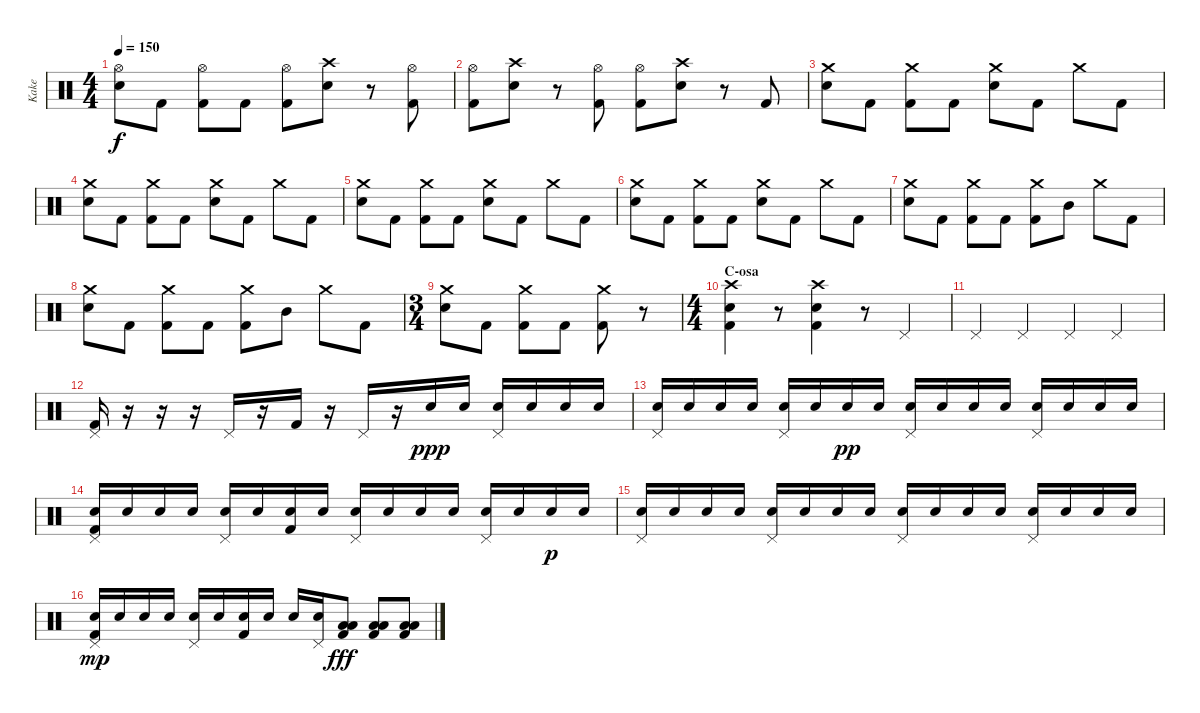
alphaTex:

\track ("Kake" "Kake") {instrument percussion}
\staff {score}
\articulation defaults
\ts (4 4)
\tempo 150
\clef neutral
\ks c
("Hi-Hat (open)" "Electric Snare (hit)").8{dy f} "Kick (hit) 2".8 ("Hi-Hat (open)" "Kick (hit) 2").8 "Kick (hit) 2".8 ("Hi-Hat (open)" "Kick (hit) 2").8 ("Crash high (hit)" "Electric Snare (hit)").8 r.8 ("Hi-Hat (open)" "Kick (hit) 2").8 |
("Hi-Hat (open)" "Kick (hit) 2").8 ("Crash high (hit)" "Electric Snare (hit)").8 r.8 ("Hi-Hat (open)" "Kick (hit) 2").8 ("Hi-Hat (open)" "Kick (hit) 2").8 ("Crash high (hit)" "Electric Snare (hit)").8 r.8 "Kick (hit) 2".8 |
("Crash medium (hit)" "Electric Snare (hit)").8 "Kick (hit) 2".8 ("Crash medium (hit)" "Kick (hit) 2").8 "Kick (hit) 2".8 ("Crash medium (hit)" "Electric Snare (hit)").8 "Kick (hit) 2".8 "Crash medium (hit)".8 "Kick (hit) 2".8 |
("Crash medium (hit)" "Electric Snare (hit)").8 "Kick (hit) 2".8 ("Crash medium (hit)" "Kick (hit) 2").8 "Kick (hit) 2".8 ("Crash medium (hit)" "Electric Snare (hit)").8 "Kick (hit) 2".8 "Crash medium (hit)".8 "Kick (hit) 2".8 |
("Crash medium (hit)" "Electric Snare (hit)").8 "Kick (hit) 2".8 ("Crash medium (hit)" "Kick (hit) 2").8 "Kick (hit) 2".8 ("Crash medium (hit)" "Electric Snare (hit)").8 "Kick (hit) 2".8 "Crash medium (hit)".8 "Kick (hit) 2".8 |
("Crash medium (hit)" "Electric Snare (hit)").8 "Kick (hit) 2".8 ("Crash medium (hit)" "Kick (hit) 2").8 "Kick (hit) 2".8 ("Crash medium (hit)" "Electric Snare (hit)").8 "Kick (hit) 2".8 "Crash medium (hit)".8 "Kick (hit) 2".8 |
("Crash medium (hit)" "Electric Snare (hit)").8 "Kick (hit) 2".8 ("Crash medium (hit)" "Kick (hit) 2").8 "Kick (hit) 2".8 ("Crash medium (hit)" "Kick (hit) 2").8 "Mid Tom (hit)".8 "Crash medium (hit)".8 "Kick (hit) 2".8 |
("Crash medium (hit)" "Electric Snare (hit)").8 "Kick (hit) 2".8 ("Crash medium (hit)" "Kick (hit) 2").8 "Kick (hit) 2".8 ("Crash medium (hit)" "Kick (hit) 2").8 "Mid Tom (hit)".8 "Crash medium (hit)".8 "Kick (hit) 2".8 |
\ts (3 4)
("Crash medium (hit)" "Electric Snare (hit)").8 "Kick (hit) 2".8 ("Crash medium (hit)" "Kick (hit) 2").8 "Kick (hit) 2".8 ("Crash medium (hit)" "Kick (hit) 2").8 r.8 |
\ts (4 4)
\section ("" "C-osa")
("Crash high (hit)" "Electric Snare (hit)" "Kick (hit) 2").4 r.8 ("Crash high (hit)" "Electric Snare (hit)" "Kick (hit) 2").4 r.8 "Pedal Hi-Hat (hit)".4 |
"Pedal Hi-Hat (hit)".4 "Pedal Hi-Hat (hit)".4 "Pedal Hi-Hat (hit)".4 "Pedal Hi-Hat (hit)".4 |
("Pedal Hi-Hat (hit)" "Kick (hit) 2").16 r.16 r.16 r.16 "Pedal Hi-Hat (hit)".16 r.16 "Kick (hit) 2".16 r.16 "Pedal Hi-Hat (hit)".16 r.16 "Electric Snare (hit)".16{dy ppp} "Electric Snare (hit)".16 ("Pedal Hi-Hat (hit)" "Electric Snare (hit)").16 "Electric Snare (hit)".16 "Electric Snare (hit)".16 "Electric Snare (hit)".16 |
("Pedal Hi-Hat (hit)" "Electric Snare (hit)").16 "Electric Snare (hit)".16 "Electric Snare (hit)".16 "Electric Snare (hit)".16 ("Pedal Hi-Hat (hit)" "Electric Snare (hit)").16 "Electric Snare (hit)".16 "Electric Snare (hit)".16{dy pp} "Electric Snare (hit)".16 ("Pedal Hi-Hat (hit)" "Electric Snare (hit)").16 "Electric Snare (hit)".16 "Electric Snare (hit)".16 "Electric Snare (hit)".16 ("Pedal Hi-Hat (hit)" "Electric Snare (hit)").16 "Electric Snare (hit)".16 "Electric Snare (hit)".16 "Electric Snare (hit)".16 |
("Pedal Hi-Hat (hit)" "Electric Snare (hit)" "Kick (hit) 2").16 "Electric Snare (hit)".16 "Electric Snare (hit)".16 "Electric Snare (hit)".16 ("Pedal Hi-Hat (hit)" "Electric Snare (hit)").16 "Electric Snare (hit)".16 ("Electric Snare (hit)" "Kick (hit) 2").16 "Electric Snare (hit)".16 ("Pedal Hi-Hat (hit)" "Electric Snare (hit)").16 "Electric Snare (hit)".16 "Electric Snare (hit)".16 "Electric Snare (hit)".16 ("Pedal Hi-Hat (hit)" "Electric Snare (hit)").16 "Electric Snare (hit)".16 "Electric Snare (hit)".16{dy p} "Electric Snare (hit)".16 |
("Pedal Hi-Hat (hit)" "Electric Snare (hit)").16 "Electric Snare (hit)".16 "Electric Snare (hit)".16 "Electric Snare (hit)".16 ("Pedal Hi-Hat (hit)" "Electric Snare (hit)").16 "Electric Snare (hit)".16 "Electric Snare (hit)".16 "Electric Snare (hit)".16 ("Pedal Hi-Hat (hit)" "Electric Snare (hit)").16 "Electric Snare (hit)".16 "Electric Snare (hit)".16 "Electric Snare (hit)".16 ("Pedal Hi-Hat (hit)" "Electric Snare (hit)").16 "Electric Snare (hit)".16 "Electric Snare (hit)".16 "Electric Snare (hit)".16 |
("Pedal Hi-Hat (hit)" "Electric Snare (hit)" "Kick (hit) 2").16{dy mp} "Electric Snare (hit)".16 "Electric Snare (hit)".16 "Electric Snare (hit)".16 ("Pedal Hi-Hat (hit)" "Electric Snare (hit)").16 "Electric Snare (hit)".16 ("Electric Snare (hit)" "Kick (hit) 2").16 "Electric Snare (hit)".16 "Electric Snare (hit)".16 ("Pedal Hi-Hat (hit)" "Electric Snare (hit)").16 ("Low Tom (hit)" "Low Floor Tom (hit)" "Kick (hit) 2").8{dy fff} ("Low Tom (hit)" "Low Floor Tom (hit)" "Kick (hit) 2").8 ("Low Tom (hit)" "Low Floor Tom (hit)" "Kick (hit) 2").8
